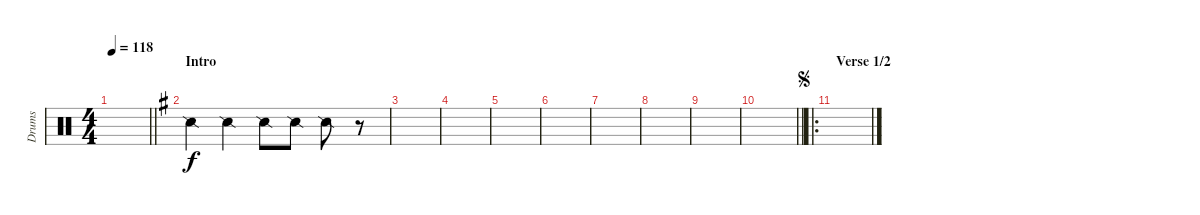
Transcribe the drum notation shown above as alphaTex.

\track ("Drums" "Drums") {instrument percussion}
\staff {score}
\articulation defaults
\ts (4 4)
\tempo 118
\clef neutral
\barLineRight lightlight
\ks c
|
\section ("" "Intro")
\ks g "Snare (side stick) 2".4 "Snare (side stick) 2".4 "Snare (side stick) 2".8 "Snare (side stick) 2".8 "Snare (side stick) 2".8
r.8 |
|
|
|
|
|
|
|
\barLineRight lightlight
|
\ro
\section ("" "Verse 1/2")
\jump segno
